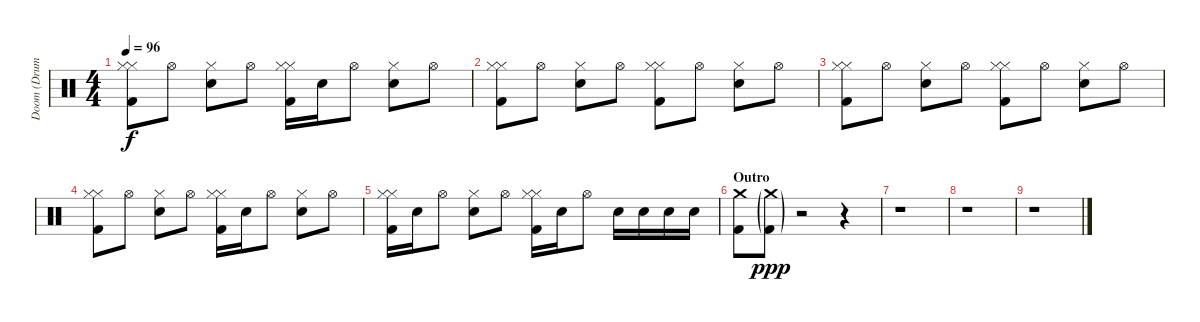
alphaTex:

\track ("Doom (Drums)" "Doom (Drum") {instrument percussion}
\staff {score}
\articulation defaults
\ts (4 4)
\tempo 96
\clef neutral
\ks c
("Hi-Hat (closed)" "Hi-Hat (closed)" "Kick (hit) 2").8{dy f} "Hi-Hat (open)".8 ("Hi-Hat (closed)" "Electric Snare (hit)").8 "Hi-Hat (open)".8 ("Hi-Hat (closed)" "Hi-Hat (closed)" "Kick (hit) 2").16 "Electric Snare (hit)".16 "Hi-Hat (open)".8 ("Hi-Hat (closed)" "Electric Snare (hit)").8 "Hi-Hat (open)".8 |
("Hi-Hat (closed)" "Hi-Hat (closed)" "Kick (hit) 2").8 "Hi-Hat (open)".8 ("Hi-Hat (closed)" "Electric Snare (hit)").8 "Hi-Hat (open)".8 ("Hi-Hat (closed)" "Hi-Hat (closed)" "Kick (hit) 2").8 "Hi-Hat (open)".8 ("Hi-Hat (closed)" "Electric Snare (hit)").8 "Hi-Hat (open)".8 |
("Hi-Hat (closed)" "Hi-Hat (closed)" "Kick (hit) 2").8 "Hi-Hat (open)".8 ("Hi-Hat (closed)" "Electric Snare (hit)").8 "Hi-Hat (open)".8 ("Hi-Hat (closed)" "Hi-Hat (closed)" "Kick (hit) 2").8 "Hi-Hat (open)".8 ("Hi-Hat (closed)" "Electric Snare (hit)").8 "Hi-Hat (open)".8 |
("Hi-Hat (closed)" "Hi-Hat (closed)" "Kick (hit) 2").8 "Hi-Hat (open)".8 ("Hi-Hat (closed)" "Electric Snare (hit)").8 "Hi-Hat (open)".8 ("Hi-Hat (closed)" "Hi-Hat (closed)" "Kick (hit) 2").16 "Electric Snare (hit)".16 "Hi-Hat (open)".8 ("Hi-Hat (closed)" "Electric Snare (hit)").8 "Hi-Hat (open)".8 |
("Hi-Hat (closed)" "Hi-Hat (closed)" "Kick (hit) 2").16 "Electric Snare (hit)".16 "Hi-Hat (open)".8 ("Hi-Hat (closed)" "Electric Snare (hit)").8 "Hi-Hat (open)".8 ("Hi-Hat (closed)" "Hi-Hat (closed)" "Kick (hit) 2").16 "Electric Snare (hit)".16 "Hi-Hat (open)".8 "Electric Snare (hit)".16 "Electric Snare (hit)".16 "Electric Snare (hit)".16 "Electric Snare (hit)".16 |
\section ("" "Outro")
("Crash medium (hit)" "Kick (hit) 2").8 ("Crash medium (hit)"{g x} "Kick (hit) 2"{g x}).8{dy ppp} r.2 r.4 |
r.1 |
r.1 |
r.1
